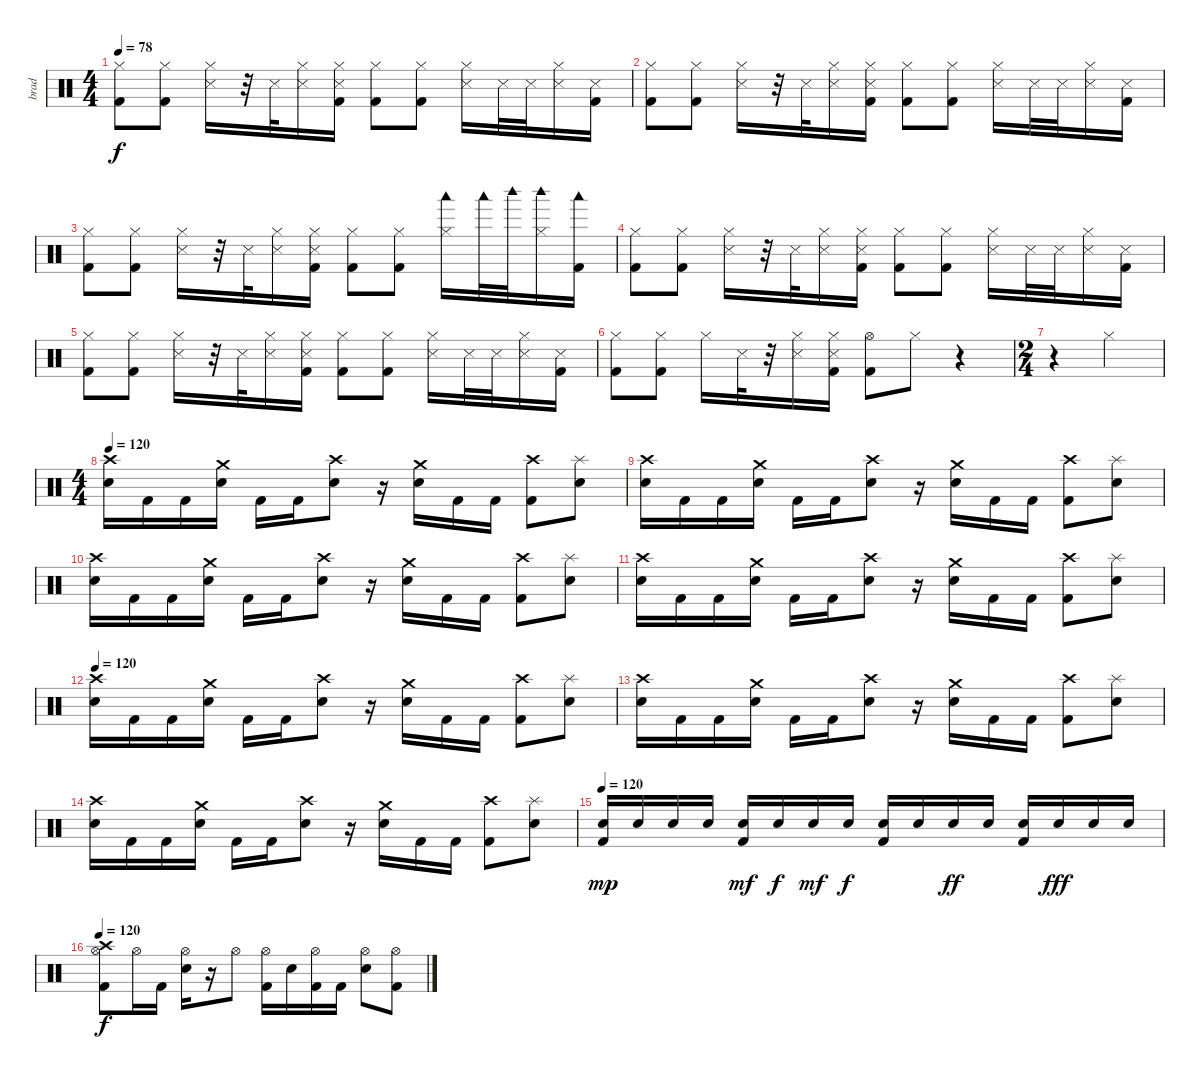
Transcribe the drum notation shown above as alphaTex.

\track ("brad" "brad") {instrument percussion}
\staff {score}
\articulation defaults
\ts (4 4)
\tempo 78
\clef neutral
\ks c
("Hi-Hat (closed)" "Kick (hit) 2").8{dy f} ("Hi-Hat (closed)" "Kick (hit) 2").8 ("Hi-Hat (closed)" "Snare (side stick) 3").16 r.32 "Snare (side stick) 3".32 ("Hi-Hat (closed)" "Snare (side stick) 3").16 ("Hi-Hat (closed)" "Snare (side stick) 3" "Kick (hit) 2").16 ("Hi-Hat (closed)" "Kick (hit) 2").8 ("Hi-Hat (closed)" "Kick (hit) 2").8 ("Hi-Hat (closed)" "Snare (side stick) 3").16 "Snare (side stick) 3".32 "Snare (side stick) 3".32 ("Hi-Hat (closed)" "Snare (side stick) 3").16 ("Snare (side stick) 3" "Kick (hit) 2").16 |
("Hi-Hat (closed)" "Kick (hit) 2").8 ("Hi-Hat (closed)" "Kick (hit) 2").8 ("Hi-Hat (closed)" "Snare (side stick) 3").16 r.32 "Snare (side stick) 3".32 ("Hi-Hat (closed)" "Snare (side stick) 3").16 ("Hi-Hat (closed)" "Snare (side stick) 3" "Kick (hit) 2").16 ("Hi-Hat (closed)" "Kick (hit) 2").8 ("Hi-Hat (closed)" "Kick (hit) 2").8 ("Hi-Hat (closed)" "Snare (side stick) 3").16 "Snare (side stick) 3".32 "Snare (side stick) 3".32 ("Hi-Hat (closed)" "Snare (side stick) 3").16 ("Snare (side stick) 3" "Kick (hit) 2").16 |
("Hi-Hat (closed)" "Kick (hit) 2").8 ("Hi-Hat (closed)" "Kick (hit) 2").8 ("Hi-Hat (closed)" "Snare (side stick) 3").16 r.32 "Snare (side stick) 3".32 ("Hi-Hat (closed)" "Snare (side stick) 3").16 ("Hi-Hat (closed)" "Snare (side stick) 3" "Kick (hit) 2").16 ("Hi-Hat (closed)" "Kick (hit) 2").8 ("Hi-Hat (closed)" "Kick (hit) 2").8 ("Hi-Hat (closed)" "Woodblock low (hit)").16 "Woodblock low (hit)".32 "Woodblock high (hit)".32 ("Hi-Hat (closed)" "Woodblock high (hit)").16 ("Woodblock low (hit)" "Kick (hit) 2").16 |
("Hi-Hat (closed)" "Kick (hit) 2").8 ("Hi-Hat (closed)" "Kick (hit) 2").8 ("Hi-Hat (closed)" "Snare (side stick) 3").16 r.32 "Snare (side stick) 3".32 ("Hi-Hat (closed)" "Snare (side stick) 3").16 ("Hi-Hat (closed)" "Snare (side stick) 3" "Kick (hit) 2").16 ("Hi-Hat (closed)" "Kick (hit) 2").8 ("Hi-Hat (closed)" "Kick (hit) 2").8 ("Hi-Hat (closed)" "Snare (side stick) 3").16 "Snare (side stick) 3".32 "Snare (side stick) 3".32 ("Hi-Hat (closed)" "Snare (side stick) 3").16 ("Snare (side stick) 3" "Kick (hit) 2").16 |
("Hi-Hat (closed)" "Kick (hit) 2").8 ("Hi-Hat (closed)" "Kick (hit) 2").8 ("Hi-Hat (closed)" "Snare (side stick) 3").16 r.32 "Snare (side stick) 3".32 ("Hi-Hat (closed)" "Snare (side stick) 3").16 ("Hi-Hat (closed)" "Snare (side stick) 3" "Kick (hit) 2").16 ("Hi-Hat (closed)" "Kick (hit) 2").8 ("Hi-Hat (closed)" "Kick (hit) 2").8 ("Hi-Hat (closed)" "Snare (side stick) 3").16 "Snare (side stick) 3".32 "Snare (side stick) 3".32 ("Hi-Hat (closed)" "Snare (side stick) 3").16 ("Snare (side stick) 3" "Kick (hit) 2").16 |
("Hi-Hat (closed)" "Kick (hit) 2").8 ("Hi-Hat (closed)" "Kick (hit) 2").8 "Hi-Hat (closed)".16 "Snare (side stick) 3".32 r.32 ("Hi-Hat (closed)" "Snare (side stick) 3").16 ("Hi-Hat (closed)" "Snare (side stick) 3" "Kick (hit) 2").16 ("Hi-Hat (open)" "Kick (hit) 2").8 "Hi-Hat (closed)".8 r.4 |
\ts (2 4)
r.4 "Hi-Hat (closed)".4 |
\ts (4 4)
\tempo 120
("Crash high (hit)" "Electric Snare (hit)").16 "Kick (hit) 2".16 "Kick (hit) 2".16 ("Crash medium (hit)" "Electric Snare (hit)").16 "Kick (hit) 2".16 "Kick (hit) 2".16 ("Crash high (hit)" "Electric Snare (hit)").8 r.16 ("Crash medium (hit)" "Electric Snare (hit)").16 "Kick (hit) 2".16 "Kick (hit) 2".16 ("Crash high (hit)" "Kick (hit) 2").8 ("Splash (hit)" "Electric Snare (hit)").8 |
("Crash high (hit)" "Electric Snare (hit)").16 "Kick (hit) 2".16 "Kick (hit) 2".16 ("Crash medium (hit)" "Electric Snare (hit)").16 "Kick (hit) 2".16 "Kick (hit) 2".16 ("Crash high (hit)" "Electric Snare (hit)").8 r.16 ("Crash medium (hit)" "Electric Snare (hit)").16 "Kick (hit) 2".16 "Kick (hit) 2".16 ("Crash high (hit)" "Kick (hit) 2").8 ("Splash (hit)" "Electric Snare (hit)").8 |
("Crash high (hit)" "Electric Snare (hit)").16 "Kick (hit) 2".16 "Kick (hit) 2".16 ("Crash medium (hit)" "Electric Snare (hit)").16 "Kick (hit) 2".16 "Kick (hit) 2".16 ("Crash high (hit)" "Electric Snare (hit)").8 r.16 ("Crash medium (hit)" "Electric Snare (hit)").16 "Kick (hit) 2".16 "Kick (hit) 2".16 ("Crash high (hit)" "Kick (hit) 2").8 ("Splash (hit)" "Electric Snare (hit)").8 |
("Crash high (hit)" "Electric Snare (hit)").16 "Kick (hit) 2".16 "Kick (hit) 2".16 ("Crash medium (hit)" "Electric Snare (hit)").16 "Kick (hit) 2".16 "Kick (hit) 2".16 ("Crash high (hit)" "Electric Snare (hit)").8 r.16 ("Crash medium (hit)" "Electric Snare (hit)").16 "Kick (hit) 2".16 "Kick (hit) 2".16 ("Crash high (hit)" "Kick (hit) 2").8 ("Splash (hit)" "Electric Snare (hit)").8 |
\tempo 120
("Crash high (hit)" "Electric Snare (hit)").16 "Kick (hit) 2".16 "Kick (hit) 2".16 ("Crash medium (hit)" "Electric Snare (hit)").16 "Kick (hit) 2".16 "Kick (hit) 2".16 ("Crash high (hit)" "Electric Snare (hit)").8 r.16 ("Crash medium (hit)" "Electric Snare (hit)").16 "Kick (hit) 2".16 "Kick (hit) 2".16 ("Crash high (hit)" "Kick (hit) 2").8 ("Splash (hit)" "Electric Snare (hit)").8 |
("Crash high (hit)" "Electric Snare (hit)").16 "Kick (hit) 2".16 "Kick (hit) 2".16 ("Crash medium (hit)" "Electric Snare (hit)").16 "Kick (hit) 2".16 "Kick (hit) 2".16 ("Crash high (hit)" "Electric Snare (hit)").8 r.16 ("Crash medium (hit)" "Electric Snare (hit)").16 "Kick (hit) 2".16 "Kick (hit) 2".16 ("Crash high (hit)" "Kick (hit) 2").8 ("Splash (hit)" "Electric Snare (hit)").8 |
("Crash high (hit)" "Electric Snare (hit)").16 "Kick (hit) 2".16 "Kick (hit) 2".16 ("Crash medium (hit)" "Electric Snare (hit)").16 "Kick (hit) 2".16 "Kick (hit) 2".16 ("Crash high (hit)" "Electric Snare (hit)").8 r.16 ("Crash medium (hit)" "Electric Snare (hit)").16 "Kick (hit) 2".16 "Kick (hit) 2".16 ("Crash high (hit)" "Kick (hit) 2").8 ("Splash (hit)" "Electric Snare (hit)").8 |
\tempo 120
("Electric Snare (hit)" "Kick (hit) 2").16{dy mp} "Electric Snare (hit)".16 "Electric Snare (hit)".16 "Electric Snare (hit)".16 ("Electric Snare (hit)" "Kick (hit) 2").16{dy mf} "Electric Snare (hit)".16{dy f} "Electric Snare (hit)".16{dy mf} "Electric Snare (hit)".16{dy f} ("Electric Snare (hit)" "Kick (hit) 2").16 "Electric Snare (hit)".16 "Electric Snare (hit)".16{dy ff} "Electric Snare (hit)".16 ("Electric Snare (hit)" "Kick (hit) 2").16 "Electric Snare (hit)".16{dy fff} "Electric Snare (hit)".16 "Electric Snare (hit)".16 |
\tempo 120
("Crash high (hit)" "Hi-Hat (open)" "Kick (hit) 2").8{dy f} "Hi-Hat (open)".16 "Kick (hit) 2".16 ("Hi-Hat (open)" "Electric Snare (hit)").16 r.16 "Hi-Hat (open)".8 ("Hi-Hat (open)" "Kick (hit) 2").16 "Electric Snare (hit)".16 ("Hi-Hat (open)" "Kick (hit) 2").16 "Kick (hit) 2".16 ("Hi-Hat (open)" "Electric Snare (hit)").8 ("Hi-Hat (open)" "Kick (hit) 2").8
